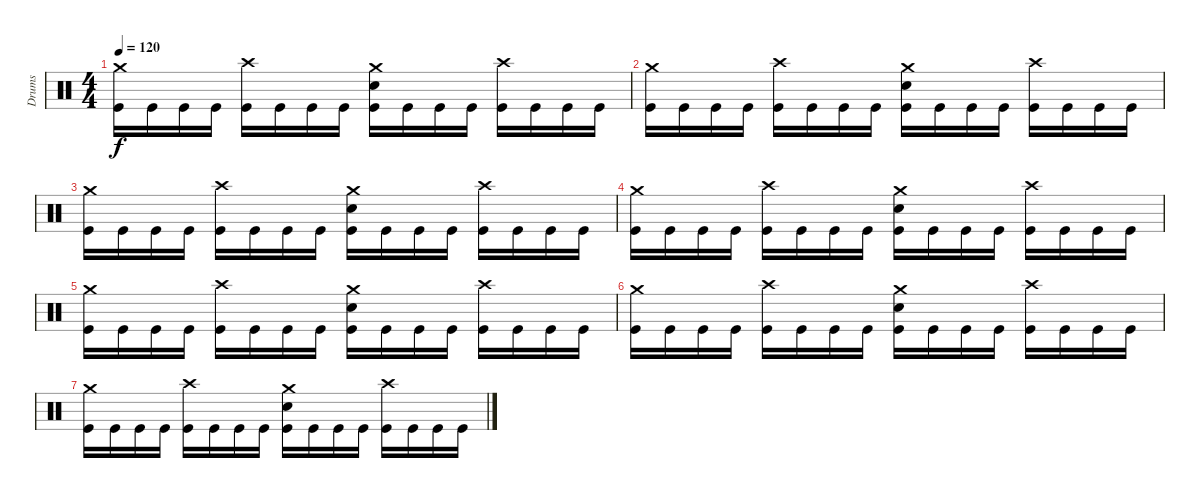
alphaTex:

\track ("Drums" "Drums") {instrument percussion}
\staff {score}
\articulation defaults
\ts (4 4)
\tempo 120
\clef neutral
\ks c
("Crash medium (hit)" "Kick (hit)").16{dy f} "Kick (hit)".16 "Kick (hit)".16 "Kick (hit)".16 ("Crash high (hit)" "Kick (hit)").16 "Kick (hit)".16 "Kick (hit)".16 "Kick (hit)".16 ("Crash medium (hit)" "Snare (hit) 2" "Kick (hit)").16 "Kick (hit)".16 "Kick (hit)".16 "Kick (hit)".16 ("Crash high (hit)" "Kick (hit)").16 "Kick (hit)".16 "Kick (hit)".16 "Kick (hit)".16 |
("Crash medium (hit)" "Kick (hit)").16 "Kick (hit)".16 "Kick (hit)".16 "Kick (hit)".16 ("Crash high (hit)" "Kick (hit)").16 "Kick (hit)".16 "Kick (hit)".16 "Kick (hit)".16 ("Crash medium (hit)" "Snare (hit) 2" "Kick (hit)").16 "Kick (hit)".16 "Kick (hit)".16 "Kick (hit)".16 ("Crash high (hit)" "Kick (hit)").16 "Kick (hit)".16 "Kick (hit)".16 "Kick (hit)".16 |
("Crash medium (hit)" "Kick (hit)").16 "Kick (hit)".16 "Kick (hit)".16 "Kick (hit)".16 ("Crash high (hit)" "Kick (hit)").16 "Kick (hit)".16 "Kick (hit)".16 "Kick (hit)".16 ("Crash medium (hit)" "Snare (hit) 2" "Kick (hit)").16 "Kick (hit)".16 "Kick (hit)".16 "Kick (hit)".16 ("Crash high (hit)" "Kick (hit)").16 "Kick (hit)".16 "Kick (hit)".16 "Kick (hit)".16 |
("Crash medium (hit)" "Kick (hit)").16 "Kick (hit)".16 "Kick (hit)".16 "Kick (hit)".16 ("Crash high (hit)" "Kick (hit)").16 "Kick (hit)".16 "Kick (hit)".16 "Kick (hit)".16 ("Crash medium (hit)" "Snare (hit) 2" "Kick (hit)").16 "Kick (hit)".16 "Kick (hit)".16 "Kick (hit)".16 ("Crash high (hit)" "Kick (hit)").16 "Kick (hit)".16 "Kick (hit)".16 "Kick (hit)".16 |
("Crash medium (hit)" "Kick (hit)").16 "Kick (hit)".16 "Kick (hit)".16 "Kick (hit)".16 ("Crash high (hit)" "Kick (hit)").16 "Kick (hit)".16 "Kick (hit)".16 "Kick (hit)".16 ("Crash medium (hit)" "Snare (hit) 2" "Kick (hit)").16 "Kick (hit)".16 "Kick (hit)".16 "Kick (hit)".16 ("Crash high (hit)" "Kick (hit)").16 "Kick (hit)".16 "Kick (hit)".16 "Kick (hit)".16 |
("Crash medium (hit)" "Kick (hit)").16 "Kick (hit)".16 "Kick (hit)".16 "Kick (hit)".16 ("Crash high (hit)" "Kick (hit)").16 "Kick (hit)".16 "Kick (hit)".16 "Kick (hit)".16 ("Crash medium (hit)" "Snare (hit) 2" "Kick (hit)").16 "Kick (hit)".16 "Kick (hit)".16 "Kick (hit)".16 ("Crash high (hit)" "Kick (hit)").16 "Kick (hit)".16 "Kick (hit)".16 "Kick (hit)".16 |
("Crash medium (hit)" "Kick (hit)").16 "Kick (hit)".16 "Kick (hit)".16 "Kick (hit)".16 ("Crash high (hit)" "Kick (hit)").16 "Kick (hit)".16 "Kick (hit)".16 "Kick (hit)".16 ("Crash medium (hit)" "Snare (hit) 2" "Kick (hit)").16 "Kick (hit)".16 "Kick (hit)".16 "Kick (hit)".16 ("Crash high (hit)" "Kick (hit)").16 "Kick (hit)".16 "Kick (hit)".16 "Kick (hit)".16
